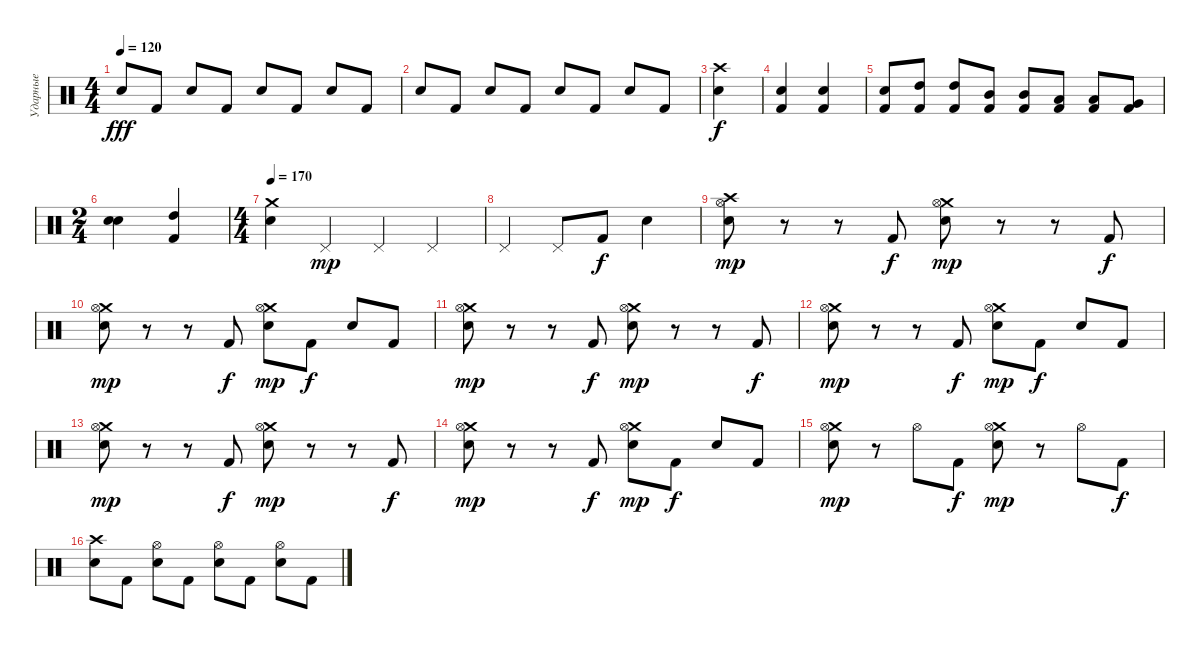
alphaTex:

\track ("Ударные" "Ударные") {instrument percussion}
\staff {score}
\articulation defaults
\ts (4 4)
\tempo 120
\clef neutral
\ks c "Electric Snare (hit)".8{dy fff} "Kick (hit) 2".8 "Electric Snare (hit)".8 "Kick (hit) 2".8 "Electric Snare (hit)".8 "Kick (hit) 2".8 "Electric Snare (hit)".8 "Kick (hit) 2".8
|
"Electric Snare (hit)".8 "Kick (hit) 2".8 "Electric Snare (hit)".8 "Kick (hit) 2".8 "Electric Snare (hit)".8 "Kick (hit) 2".8 "Electric Snare (hit)".8 "Kick (hit) 2".8 |
("Crash high (hit)" "Snare (hit) 2").4{dy f} |
("Kick (hit) 2" "Snare (hit) 2").4 ("Kick (hit) 2" "Snare (hit) 2").4 |
("Kick (hit) 2" "Electric Snare (hit)").8 ("High Tom (hit)" "Kick (hit) 2").8 ("High Tom (hit)" "Kick (hit) 2").8 ("Mid Tom (hit)" "Kick (hit) 2").8 ("Mid Tom (hit)" "Kick (hit) 2").8 ("Low Tom (hit)" "Kick (hit) 2").8 ("Low Tom (hit)" "Kick (hit) 2").8 ("Very Low Tom (hit)" "Kick (hit) 2").8 |
\ts (2 4)
("Snare (hit) 2" "Electric Snare (hit)").4 ("High Tom (hit)" "Kick (hit) 2").4 |
\ts (4 4)
\tempo 170
("Crash medium (hit)" "Snare (hit) 2").4 "Pedal Hi-Hat (hit)".4{dy mp} "Pedal Hi-Hat (hit)".4 "Pedal Hi-Hat (hit)".4 |
"Pedal Hi-Hat (hit)".4 "Pedal Hi-Hat (hit)".8 "Kick (hit) 2".8{dy f} "Electric Snare (hit)".4 |
("Crash high (hit)" "Hi-Hat (open)" "Snare (hit) 2").8{dy mp} r.8 r.8 "Kick (hit) 2".8{dy f} ("Crash medium (hit)" "Hi-Hat (open)" "Electric Snare (hit)").8{dy mp} r.8 r.8 "Kick (hit) 2".8{dy f} |
("Crash medium (hit)" "Hi-Hat (open)" "Snare (hit) 2").8{dy mp} r.8 r.8 "Kick (hit) 2".8{dy f} ("Crash medium (hit)" "Hi-Hat (open)" "Electric Snare (hit)").8{dy mp} "Kick (hit) 2".8{dy f} "Electric Snare (hit)".8 "Kick (hit) 2".8 |
("Crash medium (hit)" "Hi-Hat (open)" "Snare (hit) 2").8{dy mp} r.8 r.8 "Kick (hit) 2".8{dy f} ("Crash medium (hit)" "Hi-Hat (open)" "Electric Snare (hit)").8{dy mp} r.8 r.8 "Kick (hit) 2".8{dy f} |
("Crash medium (hit)" "Hi-Hat (open)" "Snare (hit) 2").8{dy mp} r.8 r.8 "Kick (hit) 2".8{dy f} ("Crash medium (hit)" "Hi-Hat (open)" "Electric Snare (hit)").8{dy mp} "Kick (hit) 2".8{dy f} "Electric Snare (hit)".8 "Kick (hit) 2".8 |
("Crash medium (hit)" "Hi-Hat (open)" "Snare (hit) 2").8{dy mp} r.8 r.8 "Kick (hit) 2".8{dy f} ("Crash medium (hit)" "Hi-Hat (open)" "Electric Snare (hit)").8{dy mp} r.8 r.8 "Kick (hit) 2".8{dy f} |
("Crash medium (hit)" "Hi-Hat (open)" "Snare (hit) 2").8{dy mp} r.8 r.8 "Kick (hit) 2".8{dy f} ("Crash medium (hit)" "Hi-Hat (open)" "Electric Snare (hit)").8{dy mp} "Kick (hit) 2".8{dy f} "Electric Snare (hit)".8 "Kick (hit) 2".8 |
("Crash medium (hit)" "Hi-Hat (open)" "Snare (hit) 2").8{dy mp} r.8 "Hi-Hat (open)".8 "Kick (hit) 2".8{dy f} ("Crash medium (hit)" "Hi-Hat (open)" "Electric Snare (hit)").8{dy mp} r.8 "Hi-Hat (open)".8 "Kick (hit) 2".8{dy f} |
("Crash high (hit)" "Electric Snare (hit)").8 "Kick (hit) 2".8 ("Hi-Hat (open)" "Electric Snare (hit)").8 "Kick (hit) 2".8 ("Hi-Hat (open)" "Electric Snare (hit)").8 "Kick (hit) 2".8 ("Hi-Hat (open)" "Electric Snare (hit)").8 "Kick (hit) 2".8
